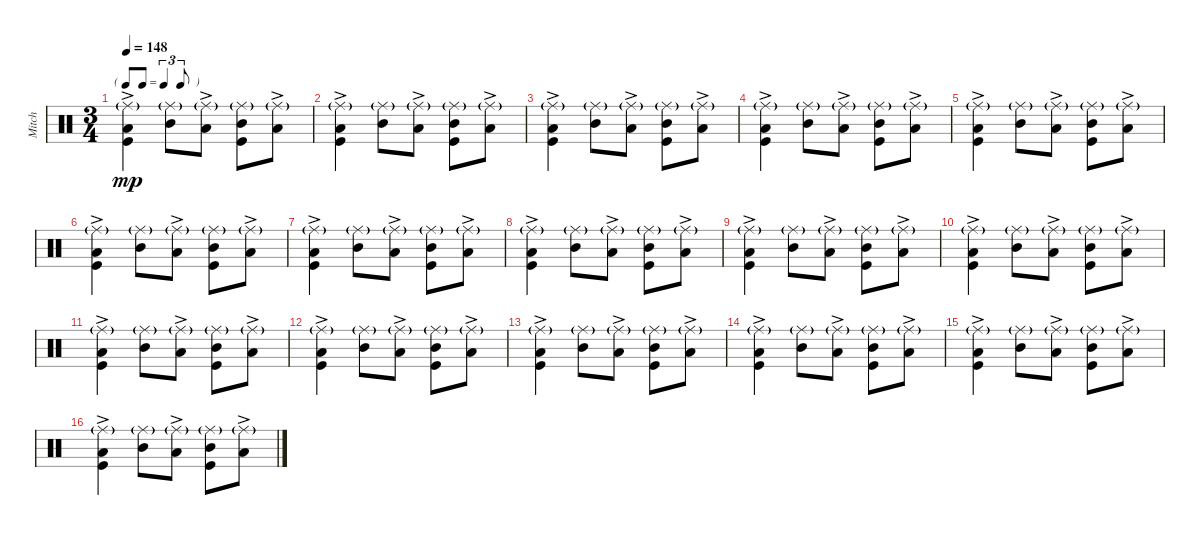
\track ("Mitch" "Mitch") {instrument percussion}
\staff {score}
\articulation defaults
\ts (3 4)
\tf triplet8th
\tempo 148
\clef neutral
\ks c
("Low Floor Tom (hit)"{ac} "Kick (hit)" "Ride (middle)"{g}).4{dy mp} ("Mid Tom (hit)" "Ride (middle)"{g}).8 ("Low Tom (hit)"{ac} "Ride (middle)"{g}).8 ("Mid Tom (hit)" "Kick (hit)" "Ride (middle)"{g}).8 ("Low Tom (hit)"{ac} "Ride (middle)"{g}).8 |
("Low Floor Tom (hit)"{ac} "Kick (hit)" "Ride (middle)"{g}).4 ("Mid Tom (hit)" "Ride (middle)"{g}).8 ("Low Tom (hit)"{ac} "Ride (middle)"{g}).8 ("Mid Tom (hit)" "Kick (hit)" "Ride (middle)"{g}).8 ("Low Tom (hit)"{ac} "Ride (middle)"{g}).8 |
("Low Floor Tom (hit)"{ac} "Kick (hit)" "Ride (middle)"{g}).4 ("Mid Tom (hit)" "Ride (middle)"{g}).8 ("Low Tom (hit)"{ac} "Ride (middle)"{g}).8 ("Mid Tom (hit)" "Kick (hit)" "Ride (middle)"{g}).8 ("Low Tom (hit)"{ac} "Ride (middle)"{g}).8 |
("Low Floor Tom (hit)"{ac} "Kick (hit)" "Ride (middle)"{g}).4 ("Mid Tom (hit)" "Ride (middle)"{g}).8 ("Low Tom (hit)"{ac} "Ride (middle)"{g}).8 ("Mid Tom (hit)" "Kick (hit)" "Ride (middle)"{g}).8 ("Low Tom (hit)"{ac} "Ride (middle)"{g}).8 |
("Low Floor Tom (hit)"{ac} "Kick (hit)" "Ride (middle)"{g}).4 ("Mid Tom (hit)" "Ride (middle)"{g}).8 ("Low Tom (hit)"{ac} "Ride (middle)"{g}).8 ("Mid Tom (hit)" "Kick (hit)" "Ride (middle)"{g}).8 ("Low Tom (hit)"{ac} "Ride (middle)"{g}).8 |
("Low Floor Tom (hit)"{ac} "Kick (hit)" "Ride (middle)"{g}).4 ("Mid Tom (hit)" "Ride (middle)"{g}).8 ("Low Tom (hit)"{ac} "Ride (middle)"{g}).8 ("Mid Tom (hit)" "Kick (hit)" "Ride (middle)"{g}).8 ("Low Tom (hit)"{ac} "Ride (middle)"{g}).8 |
("Low Floor Tom (hit)"{ac} "Kick (hit)" "Ride (middle)"{g}).4 ("Mid Tom (hit)" "Ride (middle)"{g}).8 ("Low Tom (hit)"{ac} "Ride (middle)"{g}).8 ("Mid Tom (hit)" "Kick (hit)" "Ride (middle)"{g}).8 ("Low Tom (hit)"{ac} "Ride (middle)"{g}).8 |
("Low Floor Tom (hit)"{ac} "Kick (hit)" "Ride (middle)"{g}).4 ("Mid Tom (hit)" "Ride (middle)"{g}).8 ("Low Tom (hit)"{ac} "Ride (middle)"{g}).8 ("Mid Tom (hit)" "Kick (hit)" "Ride (middle)"{g}).8 ("Low Tom (hit)"{ac} "Ride (middle)"{g}).8 |
("Low Floor Tom (hit)"{ac} "Kick (hit)" "Ride (middle)"{g}).4 ("Mid Tom (hit)" "Ride (middle)"{g}).8 ("Low Tom (hit)"{ac} "Ride (middle)"{g}).8 ("Mid Tom (hit)" "Kick (hit)" "Ride (middle)"{g}).8 ("Low Tom (hit)"{ac} "Ride (middle)"{g}).8 |
("Low Floor Tom (hit)"{ac} "Kick (hit)" "Ride (middle)"{g}).4 ("Mid Tom (hit)" "Ride (middle)"{g}).8 ("Low Tom (hit)"{ac} "Ride (middle)"{g}).8 ("Mid Tom (hit)" "Kick (hit)" "Ride (middle)"{g}).8 ("Low Tom (hit)"{ac} "Ride (middle)"{g}).8 |
("Low Floor Tom (hit)"{ac} "Kick (hit)" "Ride (middle)"{g}).4 ("Mid Tom (hit)" "Ride (middle)"{g}).8 ("Low Tom (hit)"{ac} "Ride (middle)"{g}).8 ("Mid Tom (hit)" "Kick (hit)" "Ride (middle)"{g}).8 ("Low Tom (hit)"{ac} "Ride (middle)"{g}).8 |
("Low Floor Tom (hit)"{ac} "Kick (hit)" "Ride (middle)"{g}).4 ("Mid Tom (hit)" "Ride (middle)"{g}).8 ("Low Tom (hit)"{ac} "Ride (middle)"{g}).8 ("Mid Tom (hit)" "Kick (hit)" "Ride (middle)"{g}).8 ("Low Tom (hit)"{ac} "Ride (middle)"{g}).8 |
("Low Floor Tom (hit)"{ac} "Kick (hit)" "Ride (middle)"{g}).4 ("Mid Tom (hit)" "Ride (middle)"{g}).8 ("Low Tom (hit)"{ac} "Ride (middle)"{g}).8 ("Mid Tom (hit)" "Kick (hit)" "Ride (middle)"{g}).8 ("Low Tom (hit)"{ac} "Ride (middle)"{g}).8 |
("Low Floor Tom (hit)"{ac} "Kick (hit)" "Ride (middle)"{g}).4 ("Mid Tom (hit)" "Ride (middle)"{g}).8 ("Low Tom (hit)"{ac} "Ride (middle)"{g}).8 ("Mid Tom (hit)" "Kick (hit)" "Ride (middle)"{g}).8 ("Low Tom (hit)"{ac} "Ride (middle)"{g}).8 |
("Low Floor Tom (hit)"{ac} "Kick (hit)" "Ride (middle)"{g}).4 ("Mid Tom (hit)" "Ride (middle)"{g}).8 ("Low Tom (hit)"{ac} "Ride (middle)"{g}).8 ("Mid Tom (hit)" "Kick (hit)" "Ride (middle)"{g}).8 ("Low Tom (hit)"{ac} "Ride (middle)"{g}).8 |
("Low Floor Tom (hit)"{ac} "Kick (hit)" "Ride (middle)"{g}).4 ("Mid Tom (hit)" "Ride (middle)"{g}).8 ("Low Tom (hit)"{ac} "Ride (middle)"{g}).8 ("Mid Tom (hit)" "Kick (hit)" "Ride (middle)"{g}).8 ("Low Tom (hit)"{ac} "Ride (middle)"{g}).8
